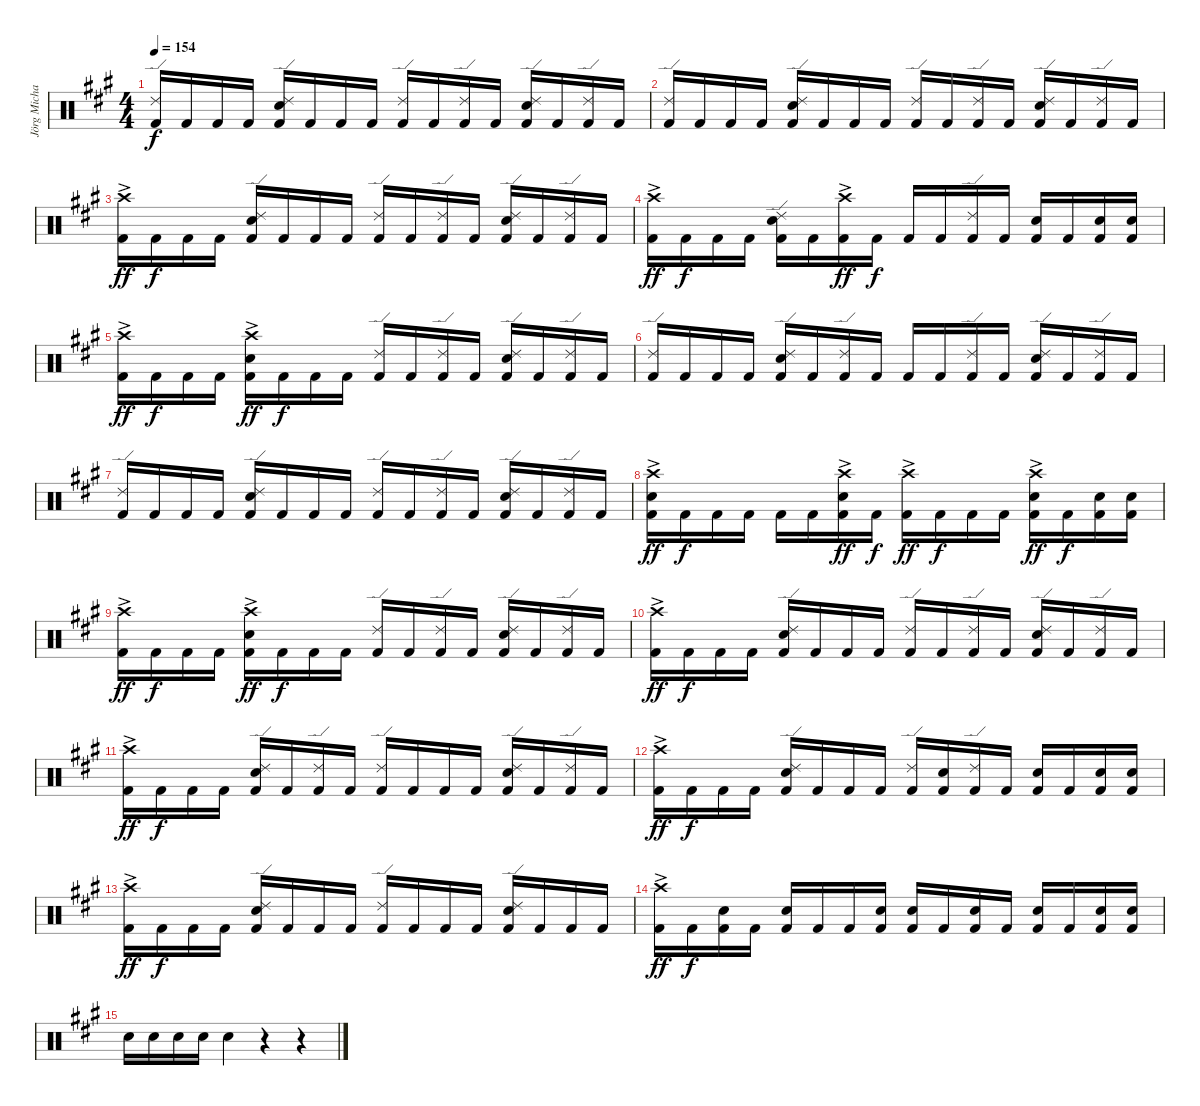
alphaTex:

\track ("Jörg Michael" "Jörg Micha") {instrument percussion}
\staff {score}
\articulation defaults
\ts (4 4)
\tempo 154
\clef neutral
\ks a
("Ride (edge) 2" "Kick (hit) 2").16{dy f} "Kick (hit) 2".16 "Kick (hit) 2".16 "Kick (hit) 2".16 ("Electric Snare (hit)" "Kick (hit) 2" "Ride (edge) 2").16 "Kick (hit) 2".16 "Kick (hit) 2".16 "Kick (hit) 2".16 ("Kick (hit) 2" "Ride (edge) 2").16 "Kick (hit) 2".16 ("Kick (hit) 2" "Ride (edge) 2").16 "Kick (hit) 2".16 ("Electric Snare (hit)" "Kick (hit) 2" "Ride (edge) 2").16 "Kick (hit) 2".16 ("Kick (hit) 2" "Ride (edge) 2").16 "Kick (hit) 2".16 |
("Ride (edge) 2" "Kick (hit) 2").16 "Kick (hit) 2".16 "Kick (hit) 2".16 "Kick (hit) 2".16 ("Electric Snare (hit)" "Kick (hit) 2" "Ride (edge) 2").16 "Kick (hit) 2".16 "Kick (hit) 2".16 "Kick (hit) 2".16 ("Kick (hit) 2" "Ride (edge) 2").16 "Kick (hit) 2".16 ("Kick (hit) 2" "Ride (edge) 2").16 "Kick (hit) 2".16 ("Electric Snare (hit)" "Kick (hit) 2" "Ride (edge) 2").16 "Kick (hit) 2".16 ("Kick (hit) 2" "Ride (edge) 2").16 "Kick (hit) 2".16 |
("Crash high (hit)"{ac} "Kick (hit) 2"{ac}).16{dy ff} "Kick (hit) 2".16{dy f} "Kick (hit) 2".16 "Kick (hit) 2".16 ("Electric Snare (hit)" "Kick (hit) 2" "Ride (edge) 2").16 "Kick (hit) 2".16 "Kick (hit) 2".16 "Kick (hit) 2".16 ("Kick (hit) 2" "Ride (edge) 2").16 "Kick (hit) 2".16 ("Kick (hit) 2" "Ride (edge) 2").16 "Kick (hit) 2".16 ("Electric Snare (hit)" "Kick (hit) 2" "Ride (edge) 2").16 "Kick (hit) 2".16 ("Kick (hit) 2" "Ride (edge) 2").16 "Kick (hit) 2".16 |
("Crash high (hit)"{ac} "Kick (hit) 2"{ac}).16{dy ff} "Kick (hit) 2".16{dy f} "Kick (hit) 2".16 "Kick (hit) 2".16 ("Electric Snare (hit)" "Kick (hit) 2" "Ride (edge) 2").16 "Kick (hit) 2".16 ("Kick (hit) 2"{ac} "Crash high (hit)"{ac}).16{dy ff} "Kick (hit) 2".16{dy f} "Kick (hit) 2".16 "Kick (hit) 2".16 ("Kick (hit) 2" "Ride (edge) 2").16 "Kick (hit) 2".16 ("Kick (hit) 2" "Electric Snare (hit)").16 "Kick (hit) 2".16 ("Kick (hit) 2" "Electric Snare (hit)").16 ("Kick (hit) 2" "Electric Snare (hit)").16 |
("Crash high (hit)"{ac} "Kick (hit) 2"{ac}).16{dy ff} "Kick (hit) 2".16{dy f} "Kick (hit) 2".16 "Kick (hit) 2".16 ("Electric Snare (hit)"{ac} "Kick (hit) 2"{ac} "Crash high (hit)"{ac}).16{dy ff} "Kick (hit) 2".16{dy f} "Kick (hit) 2".16 "Kick (hit) 2".16 ("Kick (hit) 2" "Ride (edge) 2").16 "Kick (hit) 2".16 ("Kick (hit) 2" "Ride (edge) 2").16 "Kick (hit) 2".16 ("Electric Snare (hit)" "Kick (hit) 2" "Ride (edge) 2").16 "Kick (hit) 2".16 ("Kick (hit) 2" "Ride (edge) 2").16 "Kick (hit) 2".16 |
("Ride (edge) 2" "Kick (hit) 2").16 "Kick (hit) 2".16 "Kick (hit) 2".16 "Kick (hit) 2".16 ("Electric Snare (hit)" "Kick (hit) 2" "Ride (edge) 2").16 "Kick (hit) 2".16 ("Ride (edge) 2" "Kick (hit) 2").16 "Kick (hit) 2".16 "Kick (hit) 2".16 "Kick (hit) 2".16 ("Kick (hit) 2" "Ride (edge) 2").16 "Kick (hit) 2".16 ("Electric Snare (hit)" "Kick (hit) 2" "Ride (edge) 2").16 "Kick (hit) 2".16 ("Kick (hit) 2" "Ride (edge) 2").16 "Kick (hit) 2".16 |
("Ride (edge) 2" "Kick (hit) 2").16 "Kick (hit) 2".16 "Kick (hit) 2".16 "Kick (hit) 2".16 ("Electric Snare (hit)" "Kick (hit) 2" "Ride (edge) 2").16 "Kick (hit) 2".16 "Kick (hit) 2".16 "Kick (hit) 2".16 ("Kick (hit) 2" "Ride (edge) 2").16 "Kick (hit) 2".16 ("Kick (hit) 2" "Ride (edge) 2").16 "Kick (hit) 2".16 ("Electric Snare (hit)" "Kick (hit) 2" "Ride (edge) 2").16 "Kick (hit) 2".16 ("Kick (hit) 2" "Ride (edge) 2").16 "Kick (hit) 2".16 |
("Crash high (hit)"{ac} "Kick (hit) 2"{ac} "Electric Snare (hit)"{ac}).16{dy ff} "Kick (hit) 2".16{dy f} "Kick (hit) 2".16 "Kick (hit) 2".16 "Kick (hit) 2".16 "Kick (hit) 2".16 ("Electric Snare (hit)"{ac} "Kick (hit) 2"{ac} "Crash high (hit)"{ac}).16{dy ff} "Kick (hit) 2".16{dy f} ("Kick (hit) 2"{ac} "Crash high (hit)"{ac}).16{dy ff} "Kick (hit) 2".16{dy f} "Kick (hit) 2".16 "Kick (hit) 2".16 ("Crash high (hit)"{ac} "Kick (hit) 2" "Electric Snare (hit)"{ac}).16{dy ff} "Kick (hit) 2".16{dy f} ("Kick (hit) 2" "Electric Snare (hit)").16 ("Kick (hit) 2" "Electric Snare (hit)").16 |
("Crash high (hit)"{ac} "Kick (hit) 2"{ac}).16{dy ff} "Kick (hit) 2".16{dy f} "Kick (hit) 2".16 "Kick (hit) 2".16 ("Electric Snare (hit)"{ac} "Kick (hit) 2"{ac} "Crash high (hit)"{ac}).16{dy ff} "Kick (hit) 2".16{dy f} "Kick (hit) 2".16 "Kick (hit) 2".16 ("Kick (hit) 2" "Ride (edge) 2").16 "Kick (hit) 2".16 ("Kick (hit) 2" "Ride (edge) 2").16 "Kick (hit) 2".16 ("Electric Snare (hit)" "Kick (hit) 2" "Ride (edge) 2").16 "Kick (hit) 2".16 ("Kick (hit) 2" "Ride (edge) 2").16 "Kick (hit) 2".16 |
("Crash high (hit)"{ac} "Kick (hit) 2"{ac}).16{dy ff} "Kick (hit) 2".16{dy f} "Kick (hit) 2".16 "Kick (hit) 2".16 ("Electric Snare (hit)" "Kick (hit) 2" "Ride (edge) 2").16 "Kick (hit) 2".16 "Kick (hit) 2".16 "Kick (hit) 2".16 ("Ride (edge) 2" "Kick (hit) 2").16 "Kick (hit) 2".16 ("Kick (hit) 2" "Ride (edge) 2").16 "Kick (hit) 2".16 ("Electric Snare (hit)" "Kick (hit) 2" "Ride (edge) 2").16 "Kick (hit) 2".16 ("Kick (hit) 2" "Ride (edge) 2").16 "Kick (hit) 2".16 |
("Crash high (hit)"{ac} "Kick (hit) 2"{ac}).16{dy ff} "Kick (hit) 2".16{dy f} "Kick (hit) 2".16 "Kick (hit) 2".16 ("Electric Snare (hit)" "Kick (hit) 2" "Ride (edge) 2").16 "Kick (hit) 2".16 ("Ride (edge) 2" "Kick (hit) 2").16 "Kick (hit) 2".16 ("Ride (edge) 2" "Kick (hit) 2").16 "Kick (hit) 2".16 "Kick (hit) 2".16 "Kick (hit) 2".16 ("Electric Snare (hit)" "Kick (hit) 2" "Ride (edge) 2").16 "Kick (hit) 2".16 ("Kick (hit) 2" "Ride (edge) 2").16 "Kick (hit) 2".16 |
("Crash high (hit)"{ac} "Kick (hit) 2"{ac}).16{dy ff} "Kick (hit) 2".16{dy f} "Kick (hit) 2".16 "Kick (hit) 2".16 ("Electric Snare (hit)" "Kick (hit) 2" "Ride (edge) 2").16 "Kick (hit) 2".16 "Kick (hit) 2".16 "Kick (hit) 2".16 ("Ride (edge) 2" "Kick (hit) 2").16 ("Electric Snare (hit)" "Kick (hit) 2").16 ("Ride (edge) 2" "Kick (hit) 2").16 "Kick (hit) 2".16 ("Electric Snare (hit)" "Kick (hit) 2").16 "Kick (hit) 2".16 ("Kick (hit) 2" "Electric Snare (hit)").16 ("Kick (hit) 2" "Electric Snare (hit)").16 |
("Crash high (hit)"{ac} "Kick (hit) 2"{ac}).16{dy ff} "Kick (hit) 2".16{dy f} "Kick (hit) 2".16 "Kick (hit) 2".16 ("Electric Snare (hit)" "Kick (hit) 2" "Ride (edge) 2").16 "Kick (hit) 2".16 "Kick (hit) 2".16 "Kick (hit) 2".16 ("Ride (edge) 2" "Kick (hit) 2").16 "Kick (hit) 2".16 "Kick (hit) 2".16 "Kick (hit) 2".16 ("Electric Snare (hit)" "Kick (hit) 2" "Ride (edge) 2").16 "Kick (hit) 2".16 "Kick (hit) 2".16 "Kick (hit) 2".16 |
("Crash high (hit)"{ac} "Kick (hit) 2"{ac}).16{dy ff} "Kick (hit) 2".16{dy f} ("Electric Snare (hit)" "Kick (hit) 2").16 "Kick (hit) 2".16 ("Electric Snare (hit)" "Kick (hit) 2").16 "Kick (hit) 2".16 "Kick (hit) 2".16 ("Kick (hit) 2" "Electric Snare (hit)").16 ("Electric Snare (hit)" "Kick (hit) 2").16 "Kick (hit) 2".16 ("Electric Snare (hit)" "Kick (hit) 2").16 "Kick (hit) 2".16 ("Electric Snare (hit)" "Kick (hit) 2").16 "Kick (hit) 2".16 ("Kick (hit) 2" "Electric Snare (hit)").16 ("Kick (hit) 2" "Electric Snare (hit)").16 |
"Electric Snare (hit)".16 "Electric Snare (hit)".16 "Electric Snare (hit)".16 "Electric Snare (hit)".16 "Electric Snare (hit)".4 r.4 r.4
